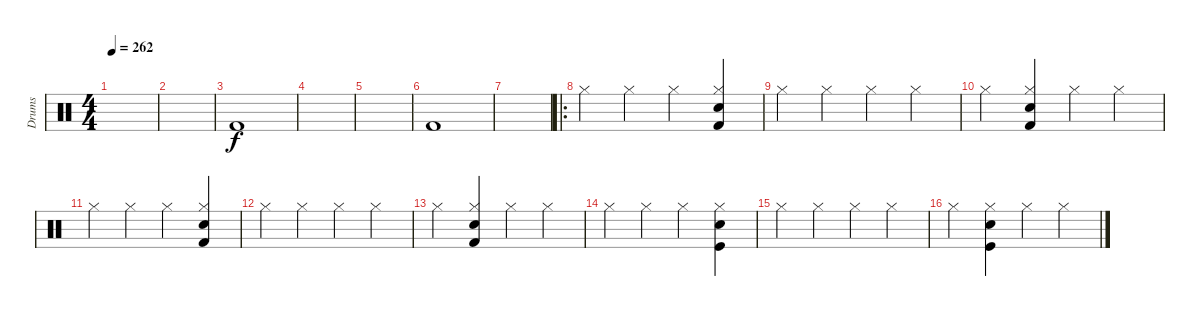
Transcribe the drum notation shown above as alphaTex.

\track ("Drums" "Drums") {instrument percussion}
\staff {score}
\articulation defaults
\ts (4 4)
\tempo 262
\clef neutral
\ks c
|
|
"Kick (hit) 2".1 |
|
|
"Kick (hit) 2".1 |
|
\ro "Hi-Hat (closed)".4 "Hi-Hat (closed)".4 "Hi-Hat (closed)".4
("Electric Snare (hit)" "Hi-Hat (closed)" "Kick (hit) 2").4 |
"Hi-Hat (closed)".4 "Hi-Hat (closed)".4 "Hi-Hat (closed)".4 "Hi-Hat (closed)".4 |
"Hi-Hat (closed)".4 ("Electric Snare (hit)" "Hi-Hat (closed)" "Kick (hit) 2").4 "Hi-Hat (closed)".4 "Hi-Hat (closed)".4 |
"Hi-Hat (closed)".4 "Hi-Hat (closed)".4 "Hi-Hat (closed)".4 ("Electric Snare (hit)" "Hi-Hat (closed)" "Kick (hit) 2").4 |
"Hi-Hat (closed)".4 "Hi-Hat (closed)".4 "Hi-Hat (closed)".4 "Hi-Hat (closed)".4 |
"Hi-Hat (closed)".4 ("Electric Snare (hit)" "Hi-Hat (closed)" "Kick (hit) 2").4 "Hi-Hat (closed)".4 "Hi-Hat (closed)".4 |
"Hi-Hat (closed)".4 "Hi-Hat (closed)".4 "Hi-Hat (closed)".4 ("Electric Snare (hit)" "Hi-Hat (closed)" "Kick (hit)").4 |
"Hi-Hat (closed)".4 "Hi-Hat (closed)".4 "Hi-Hat (closed)".4 "Hi-Hat (closed)".4 |
"Hi-Hat (closed)".4 ("Electric Snare (hit)" "Hi-Hat (closed)" "Kick (hit)").4 "Hi-Hat (closed)".4 "Hi-Hat (closed)".4
